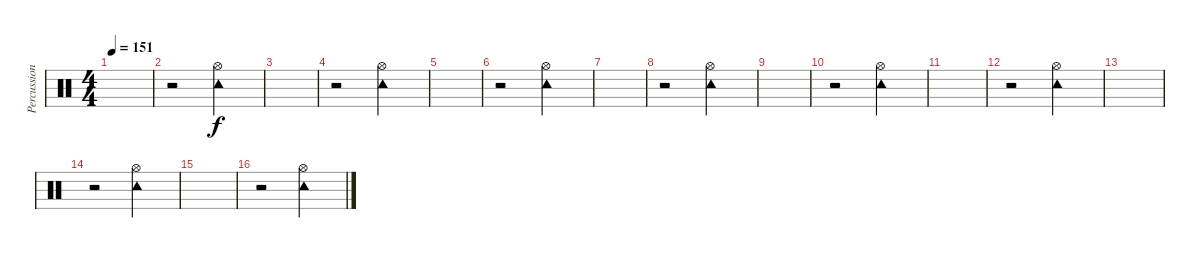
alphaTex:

\track ("Percussion" "Percussion") {instrument percussion}
\staff {score}
\articulation defaults
\ts (4 4)
\tempo 151
\clef neutral
\ks c
|
r.2 ("Tambourine (hit)" "Hi-Hat (open)").2 |
|
r.2 ("Tambourine (hit)" "Hi-Hat (open)").2 |
|
r.2 ("Tambourine (hit)" "Hi-Hat (open)").2 |
|
r.2 ("Tambourine (hit)" "Hi-Hat (open)").2 |
|
r.2 ("Tambourine (hit)" "Hi-Hat (open)").2 |
|
r.2 ("Tambourine (hit)" "Hi-Hat (open)").2 |
|
r.2 ("Tambourine (hit)" "Hi-Hat (open)").2 |
|
r.2 ("Tambourine (hit)" "Hi-Hat (open)").2
